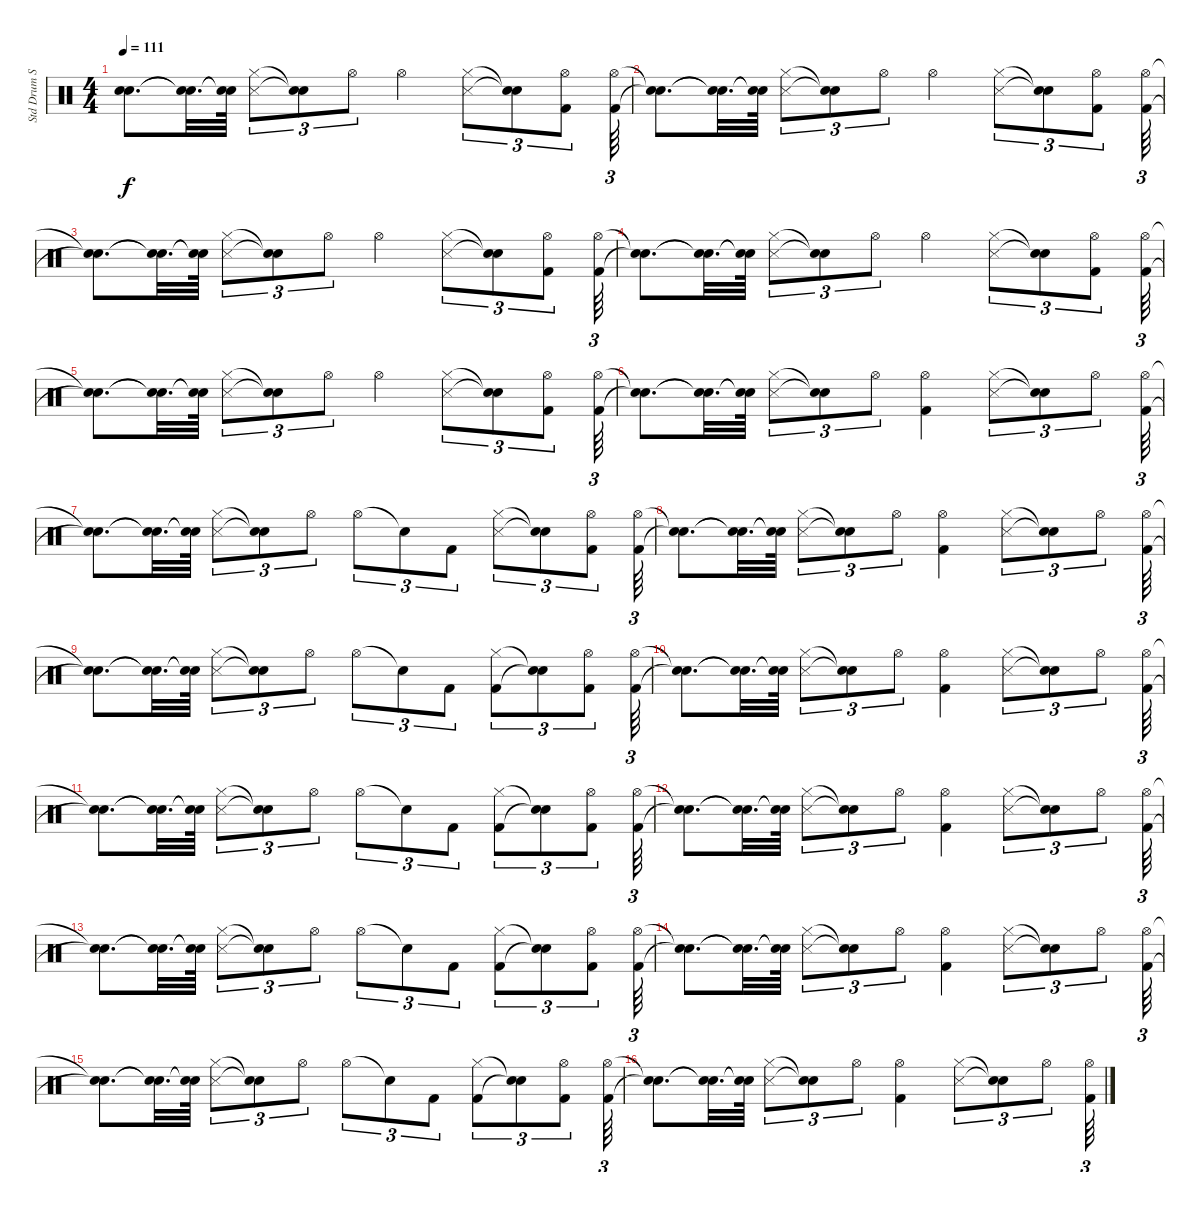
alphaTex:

\track ("Std Drum Set" "Std Drum S") {solo instrument percussion}
\staff {score}
\articulation defaults
\ts (4 4)
\tempo 111
\clef neutral
\ks c
("Snare (hit)"{t} "Snare (hit)"{t}).8{d dy f} ("Snare (hit)"{t} "Snare (hit)"{t}).32{d} ("Snare (hit)"{t} "Snare (hit)"{t}).64 ("Snare (side stick) 3" "Hi-Hat (closed)").8{tu (3 2)} ("Snare (hit)"{t} "Snare (hit)"{t}).8{tu (3 2)} "Hi-Hat (open)".8{tu (3 2)} "Hi-Hat (open)".4 ("Snare (side stick) 3" "Hi-Hat (closed)").8{tu (3 2)} ("Snare (hit)"{t} "Snare (hit)"{t}).8{tu (3 2)} ("Kick (hit) 2" "Hi-Hat (open)").8{tu (3 2)} ("Kick (hit) 2" "Hi-Hat (open)").64{tu (3 2)} |
("Snare (hit)"{t} "Snare (hit)"{t}).8{d} ("Snare (hit)"{t} "Snare (hit)"{t}).32{d} ("Snare (hit)"{t} "Snare (hit)"{t}).64 ("Snare (side stick) 3" "Hi-Hat (closed)").8{tu (3 2)} ("Snare (hit)"{t} "Snare (hit)"{t}).8{tu (3 2)} "Hi-Hat (open)".8{tu (3 2)} "Hi-Hat (open)".4 ("Snare (side stick) 3" "Hi-Hat (closed)").8{tu (3 2)} ("Snare (hit)"{t} "Snare (hit)"{t}).8{tu (3 2)} ("Kick (hit) 2" "Hi-Hat (open)").8{tu (3 2)} ("Kick (hit) 2" "Hi-Hat (open)").64{tu (3 2)} |
("Snare (hit)"{t} "Snare (hit)"{t}).8{d} ("Snare (hit)"{t} "Snare (hit)"{t}).32{d} ("Snare (hit)"{t} "Snare (hit)"{t}).64 ("Snare (side stick) 3" "Hi-Hat (closed)").8{tu (3 2)} ("Snare (hit)"{t} "Snare (hit)"{t}).8{tu (3 2)} "Hi-Hat (open)".8{tu (3 2)} "Hi-Hat (open)".4 ("Snare (side stick) 3" "Hi-Hat (closed)").8{tu (3 2)} ("Snare (hit)"{t} "Snare (hit)"{t}).8{tu (3 2)} ("Kick (hit) 2" "Hi-Hat (open)").8{tu (3 2)} ("Kick (hit) 2" "Hi-Hat (open)").64{tu (3 2)} |
("Snare (hit)"{t} "Snare (hit)"{t}).8{d} ("Snare (hit)"{t} "Snare (hit)"{t}).32{d} ("Snare (hit)"{t} "Snare (hit)"{t}).64 ("Snare (side stick) 3" "Hi-Hat (closed)").8{tu (3 2)} ("Snare (hit)"{t} "Snare (hit)"{t}).8{tu (3 2)} "Hi-Hat (open)".8{tu (3 2)} "Hi-Hat (open)".4 ("Snare (side stick) 3" "Hi-Hat (closed)").8{tu (3 2)} ("Snare (hit)"{t} "Snare (hit)"{t}).8{tu (3 2)} ("Kick (hit) 2" "Hi-Hat (open)").8{tu (3 2)} ("Kick (hit) 2" "Hi-Hat (open)").64{tu (3 2)} |
("Snare (hit)"{t} "Snare (hit)"{t}).8{d} ("Snare (hit)"{t} "Snare (hit)"{t}).32{d} ("Snare (hit)"{t} "Snare (hit)"{t}).64 ("Snare (side stick) 3" "Hi-Hat (closed)").8{tu (3 2)} ("Snare (hit)"{t} "Snare (hit)"{t}).8{tu (3 2)} "Hi-Hat (open)".8{tu (3 2)} "Hi-Hat (open)".4 ("Snare (side stick) 3" "Hi-Hat (closed)").8{tu (3 2)} ("Snare (hit)"{t} "Snare (hit)"{t}).8{tu (3 2)} ("Kick (hit) 2" "Hi-Hat (open)").8{tu (3 2)} ("Kick (hit) 2" "Hi-Hat (open)").64{tu (3 2)} |
("Snare (hit)"{t} "Snare (hit)"{t}).8{d} ("Snare (hit)"{t} "Snare (hit)"{t}).32{d} ("Snare (hit)"{t} "Snare (hit)"{t}).64 ("Snare (side stick) 3" "Hi-Hat (closed)").8{tu (3 2)} ("Snare (hit)"{t} "Snare (hit)"{t}).8{tu (3 2)} "Hi-Hat (open)".8{tu (3 2)} ("Kick (hit) 2" "Hi-Hat (open)").4 ("Snare (side stick) 3" "Hi-Hat (closed)").8{tu (3 2)} ("Snare (hit)"{t} "Snare (hit)"{t}).8{tu (3 2)} "Hi-Hat (open)".8{tu (3 2)} ("Kick (hit) 2" "Hi-Hat (open)").64{tu (3 2)} |
("Snare (hit)"{t} "Snare (hit)"{t}).8{d} ("Snare (hit)"{t} "Snare (hit)"{t}).32{d} ("Snare (hit)"{t} "Snare (hit)"{t}).64 ("Snare (side stick) 3" "Hi-Hat (closed)").8{tu (3 2)} ("Snare (hit)"{t} "Snare (hit)"{t}).8{tu (3 2)} "Hi-Hat (open)".8{tu (3 2)} "Hi-Hat (open)".8{tu (3 2)} "Snare (hit)"{t}.8{tu (3 2)} "Kick (hit) 2".8{tu (3 2)} ("Snare (side stick) 3" "Hi-Hat (closed)").8{tu (3 2)} ("Snare (hit)"{t} "Snare (hit)"{t}).8{tu (3 2)} ("Kick (hit) 2" "Hi-Hat (open)").8{tu (3 2)} ("Kick (hit) 2" "Hi-Hat (open)").64{tu (3 2)} |
("Snare (hit)"{t} "Snare (hit)"{t}).8{d} ("Snare (hit)"{t} "Snare (hit)"{t}).32{d} ("Snare (hit)"{t} "Snare (hit)"{t}).64 ("Snare (side stick) 3" "Hi-Hat (closed)").8{tu (3 2)} ("Snare (hit)"{t} "Snare (hit)"{t}).8{tu (3 2)} "Hi-Hat (open)".8{tu (3 2)} ("Kick (hit) 2" "Hi-Hat (open)").4 ("Snare (side stick) 3" "Hi-Hat (closed)").8{tu (3 2)} ("Snare (hit)"{t} "Snare (hit)"{t}).8{tu (3 2)} "Hi-Hat (open)".8{tu (3 2)} ("Kick (hit) 2" "Hi-Hat (open)").64{tu (3 2)} |
("Snare (hit)"{t} "Snare (hit)"{t}).8{d} ("Snare (hit)"{t} "Snare (hit)"{t}).32{d} ("Snare (hit)"{t} "Snare (hit)"{t}).64 ("Snare (side stick) 3" "Hi-Hat (closed)").8{tu (3 2)} ("Snare (hit)"{t} "Snare (hit)"{t}).8{tu (3 2)} "Hi-Hat (open)".8{tu (3 2)} "Hi-Hat (open)".8{tu (3 2)} "Snare (hit)"{t}.8{tu (3 2)} "Kick (hit) 2".8{tu (3 2)} ("Kick (hit) 2" "Hi-Hat (closed)").8{tu (3 2)} ("Snare (hit)"{t} "Snare (hit)"{t}).8{tu (3 2)} ("Kick (hit) 2" "Hi-Hat (open)").8{tu (3 2)} ("Kick (hit) 2" "Hi-Hat (open)").64{tu (3 2)} |
("Snare (hit)"{t} "Snare (hit)"{t}).8{d} ("Snare (hit)"{t} "Snare (hit)"{t}).32{d} ("Snare (hit)"{t} "Snare (hit)"{t}).64 ("Snare (side stick) 3" "Hi-Hat (closed)").8{tu (3 2)} ("Snare (hit)"{t} "Snare (hit)"{t}).8{tu (3 2)} "Hi-Hat (open)".8{tu (3 2)} ("Kick (hit) 2" "Hi-Hat (open)").4 ("Snare (side stick) 3" "Hi-Hat (closed)").8{tu (3 2)} ("Snare (hit)"{t} "Snare (hit)"{t}).8{tu (3 2)} "Hi-Hat (open)".8{tu (3 2)} ("Kick (hit) 2" "Hi-Hat (open)").64{tu (3 2)} |
("Snare (hit)"{t} "Snare (hit)"{t}).8{d} ("Snare (hit)"{t} "Snare (hit)"{t}).32{d} ("Snare (hit)"{t} "Snare (hit)"{t}).64 ("Snare (side stick) 3" "Hi-Hat (closed)").8{tu (3 2)} ("Snare (hit)"{t} "Snare (hit)"{t}).8{tu (3 2)} "Hi-Hat (open)".8{tu (3 2)} "Hi-Hat (open)".8{tu (3 2)} "Snare (hit)"{t}.8{tu (3 2)} "Kick (hit) 2".8{tu (3 2)} ("Kick (hit) 2" "Hi-Hat (closed)").8{tu (3 2)} ("Snare (hit)"{t} "Snare (hit)"{t}).8{tu (3 2)} ("Kick (hit) 2" "Hi-Hat (open)").8{tu (3 2)} ("Kick (hit) 2" "Hi-Hat (open)").64{tu (3 2)} |
("Snare (hit)"{t} "Snare (hit)"{t}).8{d} ("Snare (hit)"{t} "Snare (hit)"{t}).32{d} ("Snare (hit)"{t} "Snare (hit)"{t}).64 ("Snare (side stick) 3" "Hi-Hat (closed)").8{tu (3 2)} ("Snare (hit)"{t} "Snare (hit)"{t}).8{tu (3 2)} "Hi-Hat (open)".8{tu (3 2)} ("Kick (hit) 2" "Hi-Hat (open)").4 ("Snare (side stick) 3" "Hi-Hat (closed)").8{tu (3 2)} ("Snare (hit)"{t} "Snare (hit)"{t}).8{tu (3 2)} "Hi-Hat (open)".8{tu (3 2)} ("Kick (hit) 2" "Hi-Hat (open)").64{tu (3 2)} |
("Snare (hit)"{t} "Snare (hit)"{t}).8{d} ("Snare (hit)"{t} "Snare (hit)"{t}).32{d} ("Snare (hit)"{t} "Snare (hit)"{t}).64 ("Snare (side stick) 3" "Hi-Hat (closed)").8{tu (3 2)} ("Snare (hit)"{t} "Snare (hit)"{t}).8{tu (3 2)} "Hi-Hat (open)".8{tu (3 2)} "Hi-Hat (open)".8{tu (3 2)} "Snare (hit)"{t}.8{tu (3 2)} "Kick (hit) 2".8{tu (3 2)} ("Kick (hit) 2" "Hi-Hat (closed)").8{tu (3 2)} ("Snare (hit)"{t} "Snare (hit)"{t}).8{tu (3 2)} ("Kick (hit) 2" "Hi-Hat (open)").8{tu (3 2)} ("Kick (hit) 2" "Hi-Hat (open)").64{tu (3 2)} |
("Snare (hit)"{t} "Snare (hit)"{t}).8{d} ("Snare (hit)"{t} "Snare (hit)"{t}).32{d} ("Snare (hit)"{t} "Snare (hit)"{t}).64 ("Snare (side stick) 3" "Hi-Hat (closed)").8{tu (3 2)} ("Snare (hit)"{t} "Snare (hit)"{t}).8{tu (3 2)} "Hi-Hat (open)".8{tu (3 2)} ("Kick (hit) 2" "Hi-Hat (open)").4 ("Snare (side stick) 3" "Hi-Hat (closed)").8{tu (3 2)} ("Snare (hit)"{t} "Snare (hit)"{t}).8{tu (3 2)} "Hi-Hat (open)".8{tu (3 2)} ("Kick (hit) 2" "Hi-Hat (open)").64{tu (3 2)} |
("Snare (hit)"{t} "Snare (hit)"{t}).8{d} ("Snare (hit)"{t} "Snare (hit)"{t}).32{d} ("Snare (hit)"{t} "Snare (hit)"{t}).64 ("Snare (side stick) 3" "Hi-Hat (closed)").8{tu (3 2)} ("Snare (hit)"{t} "Snare (hit)"{t}).8{tu (3 2)} "Hi-Hat (open)".8{tu (3 2)} "Hi-Hat (open)".8{tu (3 2)} "Snare (hit)"{t}.8{tu (3 2)} "Kick (hit) 2".8{tu (3 2)} ("Kick (hit) 2" "Hi-Hat (closed)").8{tu (3 2)} ("Snare (hit)"{t} "Snare (hit)"{t}).8{tu (3 2)} ("Kick (hit) 2" "Hi-Hat (open)").8{tu (3 2)} ("Kick (hit) 2" "Hi-Hat (open)").64{tu (3 2)} |
("Snare (hit)"{t} "Snare (hit)"{t}).8{d} ("Snare (hit)"{t} "Snare (hit)"{t}).32{d} ("Snare (hit)"{t} "Snare (hit)"{t}).64 ("Snare (side stick) 3" "Hi-Hat (closed)").8{tu (3 2)} ("Snare (hit)"{t} "Snare (hit)"{t}).8{tu (3 2)} "Hi-Hat (open)".8{tu (3 2)} ("Kick (hit) 2" "Hi-Hat (open)").4 ("Snare (side stick) 3" "Hi-Hat (closed)").8{tu (3 2)} ("Snare (hit)"{t} "Snare (hit)"{t}).8{tu (3 2)} "Hi-Hat (open)".8{tu (3 2)} ("Kick (hit) 2" "Hi-Hat (open)").64{tu (3 2)}
